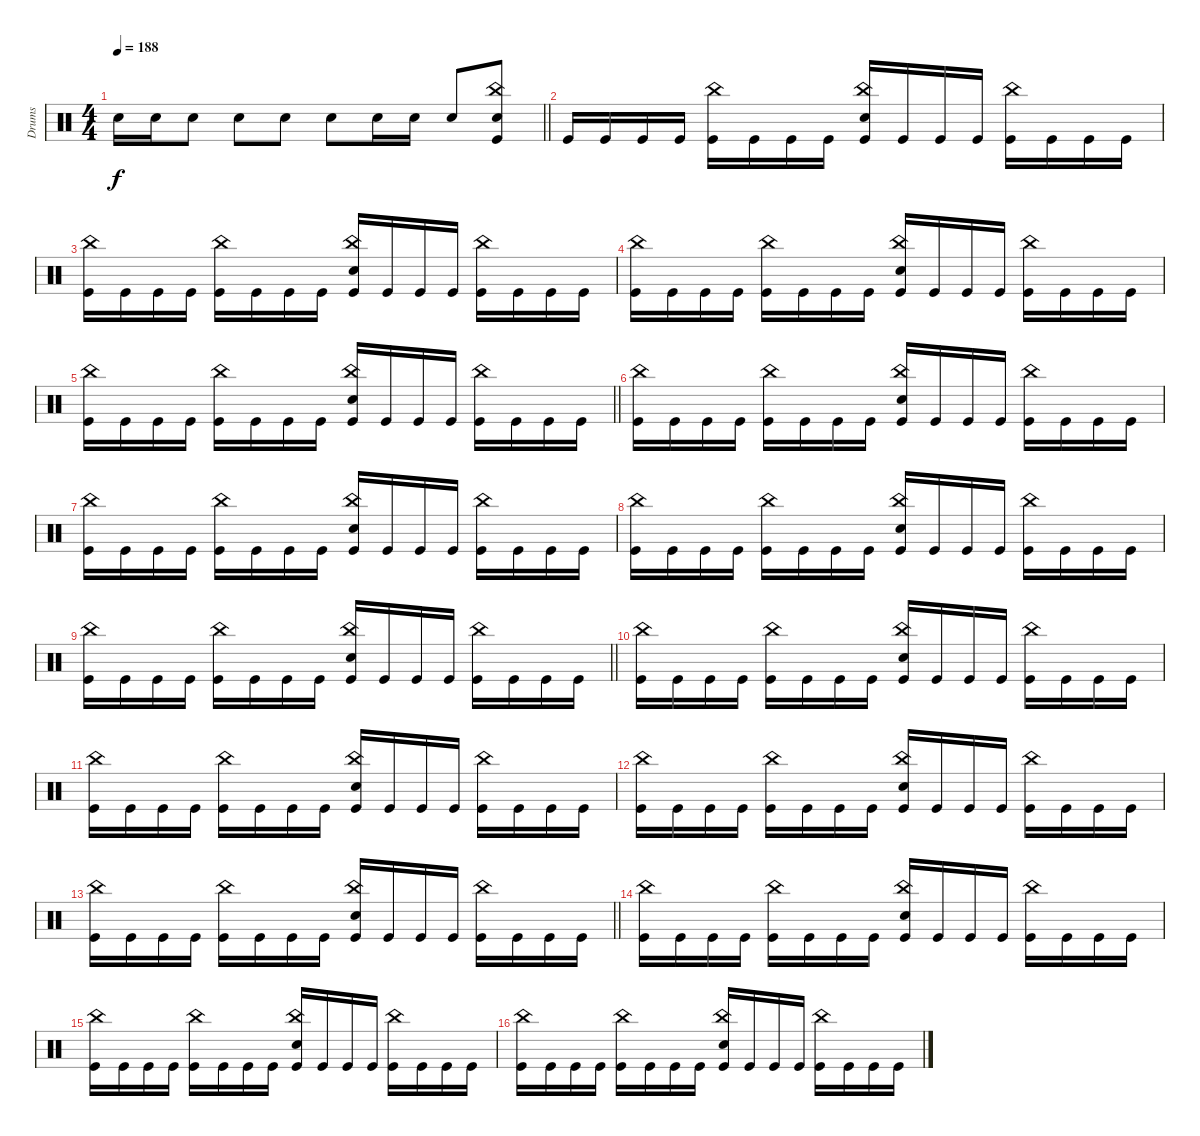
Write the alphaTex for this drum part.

\track ("Drums" "Drums") {instrument percussion}
\staff
\articulation defaults
\ts (4 4)
\tempo 188
\clef neutral
\barLineRight lightlight
\ks c "Electric Snare (hit)".16{dy f} "Electric Snare (hit)".16 "Electric Snare (hit)".8 "Electric Snare (hit)".8 "Electric Snare (hit)".8 "Electric Snare (hit)".8 "Electric Snare (hit)".16 "Electric Snare (hit)".16 "Electric Snare (hit)".8
("China (hit)" "Electric Snare (hit)" "Kick (hit)").8 |
\section ("" "")
"Kick (hit)".16 "Kick (hit)".16 "Kick (hit)".16 "Kick (hit)".16 ("China (hit)" "Kick (hit)").16 "Kick (hit)".16 "Kick (hit)".16 "Kick (hit)".16 ("China (hit)" "Electric Snare (hit)" "Kick (hit)").16 "Kick (hit)".16 "Kick (hit)".16 "Kick (hit)".16 ("China (hit)" "Kick (hit)").16 "Kick (hit)".16 "Kick (hit)".16 "Kick (hit)".16 |
("China (hit)" "Kick (hit)").16 "Kick (hit)".16 "Kick (hit)".16 "Kick (hit)".16 ("China (hit)" "Kick (hit)").16 "Kick (hit)".16 "Kick (hit)".16 "Kick (hit)".16 ("China (hit)" "Electric Snare (hit)" "Kick (hit)").16 "Kick (hit)".16 "Kick (hit)".16 "Kick (hit)".16 ("China (hit)" "Kick (hit)").16 "Kick (hit)".16 "Kick (hit)".16 "Kick (hit)".16 |
("China (hit)" "Kick (hit)").16 "Kick (hit)".16 "Kick (hit)".16 "Kick (hit)".16 ("China (hit)" "Kick (hit)").16 "Kick (hit)".16 "Kick (hit)".16 "Kick (hit)".16 ("China (hit)" "Electric Snare (hit)" "Kick (hit)").16 "Kick (hit)".16 "Kick (hit)".16 "Kick (hit)".16 ("China (hit)" "Kick (hit)").16 "Kick (hit)".16 "Kick (hit)".16 "Kick (hit)".16 |
\barLineRight lightlight
("China (hit)" "Kick (hit)").16 "Kick (hit)".16 "Kick (hit)".16 "Kick (hit)".16 ("China (hit)" "Kick (hit)").16 "Kick (hit)".16 "Kick (hit)".16 "Kick (hit)".16 ("China (hit)" "Electric Snare (hit)" "Kick (hit)").16 "Kick (hit)".16 "Kick (hit)".16 "Kick (hit)".16 ("China (hit)" "Kick (hit)").16 "Kick (hit)".16 "Kick (hit)".16 "Kick (hit)".16 |
("China (hit)" "Kick (hit)").16 "Kick (hit)".16 "Kick (hit)".16 "Kick (hit)".16 ("China (hit)" "Kick (hit)").16 "Kick (hit)".16 "Kick (hit)".16 "Kick (hit)".16 ("China (hit)" "Electric Snare (hit)" "Kick (hit)").16 "Kick (hit)".16 "Kick (hit)".16 "Kick (hit)".16 ("China (hit)" "Kick (hit)").16 "Kick (hit)".16 "Kick (hit)".16 "Kick (hit)".16 |
("China (hit)" "Kick (hit)").16 "Kick (hit)".16 "Kick (hit)".16 "Kick (hit)".16 ("China (hit)" "Kick (hit)").16 "Kick (hit)".16 "Kick (hit)".16 "Kick (hit)".16 ("China (hit)" "Electric Snare (hit)" "Kick (hit)").16 "Kick (hit)".16 "Kick (hit)".16 "Kick (hit)".16 ("China (hit)" "Kick (hit)").16 "Kick (hit)".16 "Kick (hit)".16 "Kick (hit)".16 |
("China (hit)" "Kick (hit)").16 "Kick (hit)".16 "Kick (hit)".16 "Kick (hit)".16 ("China (hit)" "Kick (hit)").16 "Kick (hit)".16 "Kick (hit)".16 "Kick (hit)".16 ("China (hit)" "Electric Snare (hit)" "Kick (hit)").16 "Kick (hit)".16 "Kick (hit)".16 "Kick (hit)".16 ("China (hit)" "Kick (hit)").16 "Kick (hit)".16 "Kick (hit)".16 "Kick (hit)".16 |
\barLineRight lightlight
("China (hit)" "Kick (hit)").16 "Kick (hit)".16 "Kick (hit)".16 "Kick (hit)".16 ("China (hit)" "Kick (hit)").16 "Kick (hit)".16 "Kick (hit)".16 "Kick (hit)".16 ("China (hit)" "Electric Snare (hit)" "Kick (hit)").16 "Kick (hit)".16 "Kick (hit)".16 "Kick (hit)".16 ("China (hit)" "Kick (hit)").16 "Kick (hit)".16 "Kick (hit)".16 "Kick (hit)".16 |
("China (hit)" "Kick (hit)").16 "Kick (hit)".16 "Kick (hit)".16 "Kick (hit)".16 ("China (hit)" "Kick (hit)").16 "Kick (hit)".16 "Kick (hit)".16 "Kick (hit)".16 ("China (hit)" "Electric Snare (hit)" "Kick (hit)").16 "Kick (hit)".16 "Kick (hit)".16 "Kick (hit)".16 ("China (hit)" "Kick (hit)").16 "Kick (hit)".16 "Kick (hit)".16 "Kick (hit)".16 |
("China (hit)" "Kick (hit)").16 "Kick (hit)".16 "Kick (hit)".16 "Kick (hit)".16 ("China (hit)" "Kick (hit)").16 "Kick (hit)".16 "Kick (hit)".16 "Kick (hit)".16 ("China (hit)" "Electric Snare (hit)" "Kick (hit)").16 "Kick (hit)".16 "Kick (hit)".16 "Kick (hit)".16 ("China (hit)" "Kick (hit)").16 "Kick (hit)".16 "Kick (hit)".16 "Kick (hit)".16 |
("China (hit)" "Kick (hit)").16 "Kick (hit)".16 "Kick (hit)".16 "Kick (hit)".16 ("China (hit)" "Kick (hit)").16 "Kick (hit)".16 "Kick (hit)".16 "Kick (hit)".16 ("China (hit)" "Electric Snare (hit)" "Kick (hit)").16 "Kick (hit)".16 "Kick (hit)".16 "Kick (hit)".16 ("China (hit)" "Kick (hit)").16 "Kick (hit)".16 "Kick (hit)".16 "Kick (hit)".16 |
\barLineRight lightlight
("China (hit)" "Kick (hit)").16 "Kick (hit)".16 "Kick (hit)".16 "Kick (hit)".16 ("China (hit)" "Kick (hit)").16 "Kick (hit)".16 "Kick (hit)".16 "Kick (hit)".16 ("China (hit)" "Electric Snare (hit)" "Kick (hit)").16 "Kick (hit)".16 "Kick (hit)".16 "Kick (hit)".16 ("China (hit)" "Kick (hit)").16 "Kick (hit)".16 "Kick (hit)".16 "Kick (hit)".16 |
("China (hit)" "Kick (hit)").16 "Kick (hit)".16 "Kick (hit)".16 "Kick (hit)".16 ("China (hit)" "Kick (hit)").16 "Kick (hit)".16 "Kick (hit)".16 "Kick (hit)".16 ("China (hit)" "Electric Snare (hit)" "Kick (hit)").16 "Kick (hit)".16 "Kick (hit)".16 "Kick (hit)".16 ("China (hit)" "Kick (hit)").16 "Kick (hit)".16 "Kick (hit)".16 "Kick (hit)".16 |
("China (hit)" "Kick (hit)").16 "Kick (hit)".16 "Kick (hit)".16 "Kick (hit)".16 ("China (hit)" "Kick (hit)").16 "Kick (hit)".16 "Kick (hit)".16 "Kick (hit)".16 ("China (hit)" "Electric Snare (hit)" "Kick (hit)").16 "Kick (hit)".16 "Kick (hit)".16 "Kick (hit)".16 ("China (hit)" "Kick (hit)").16 "Kick (hit)".16 "Kick (hit)".16 "Kick (hit)".16 |
("China (hit)" "Kick (hit)").16 "Kick (hit)".16 "Kick (hit)".16 "Kick (hit)".16 ("China (hit)" "Kick (hit)").16 "Kick (hit)".16 "Kick (hit)".16 "Kick (hit)".16 ("China (hit)" "Electric Snare (hit)" "Kick (hit)").16 "Kick (hit)".16 "Kick (hit)".16 "Kick (hit)".16 ("China (hit)" "Kick (hit)").16 "Kick (hit)".16 "Kick (hit)".16 "Kick (hit)".16
